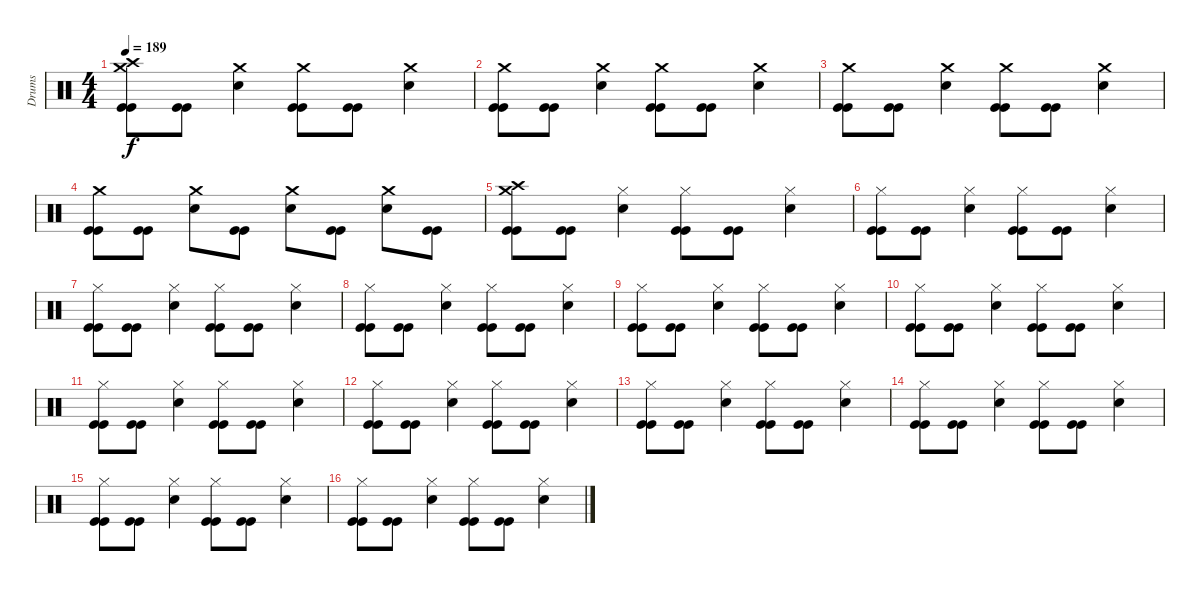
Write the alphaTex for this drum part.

\track ("Drums" "Drums") {instrument percussion}
\staff {score}
\articulation defaults
\ts (4 4)
\tempo 189
\clef neutral
\ks c
("Crash high (hit)" "Crash medium (hit)" "Kick (hit)" "Kick (hit)").8{dy f} ("Kick (hit)" "Kick (hit)").8 ("Crash medium (hit)" "Electric Snare (hit)").4 ("Crash medium (hit)" "Kick (hit)" "Kick (hit)").8 ("Kick (hit)" "Kick (hit)").8 ("Crash medium (hit)" "Electric Snare (hit)").4 |
("Crash medium (hit)" "Kick (hit)" "Kick (hit)").8 ("Kick (hit)" "Kick (hit)").8 ("Crash medium (hit)" "Electric Snare (hit)").4 ("Crash medium (hit)" "Kick (hit)" "Kick (hit)").8 ("Kick (hit)" "Kick (hit)").8 ("Crash medium (hit)" "Electric Snare (hit)").4 |
("Crash medium (hit)" "Kick (hit)" "Kick (hit)").8 ("Kick (hit)" "Kick (hit)").8 ("Crash medium (hit)" "Electric Snare (hit)").4 ("Crash medium (hit)" "Kick (hit)" "Kick (hit)").8 ("Kick (hit)" "Kick (hit)").8 ("Crash medium (hit)" "Electric Snare (hit)").4 |
("Crash medium (hit)" "Kick (hit)" "Kick (hit)").8 ("Kick (hit)" "Kick (hit)").8 ("Crash medium (hit)" "Electric Snare (hit)").8 ("Kick (hit)" "Kick (hit)").8 ("Crash medium (hit)" "Electric Snare (hit)").8 ("Kick (hit)" "Kick (hit)").8 ("Crash medium (hit)" "Electric Snare (hit)").8 ("Kick (hit)" "Kick (hit)").8 |
("Crash high (hit)" "Crash medium (hit)" "Kick (hit)" "Kick (hit)").8 ("Kick (hit)" "Kick (hit)").8 ("Hi-Hat (closed)" "Electric Snare (hit)").4 ("Hi-Hat (closed)" "Kick (hit)" "Kick (hit)").8 ("Kick (hit)" "Kick (hit)").8 ("Hi-Hat (closed)" "Electric Snare (hit)").4 |
("Hi-Hat (closed)" "Kick (hit)" "Kick (hit)").8 ("Kick (hit)" "Kick (hit)").8 ("Hi-Hat (closed)" "Electric Snare (hit)").4 ("Hi-Hat (closed)" "Kick (hit)" "Kick (hit)").8 ("Kick (hit)" "Kick (hit)").8 ("Hi-Hat (closed)" "Electric Snare (hit)").4 |
("Hi-Hat (closed)" "Kick (hit)" "Kick (hit)").8 ("Kick (hit)" "Kick (hit)").8 ("Hi-Hat (closed)" "Electric Snare (hit)").4 ("Hi-Hat (closed)" "Kick (hit)" "Kick (hit)").8 ("Kick (hit)" "Kick (hit)").8 ("Hi-Hat (closed)" "Electric Snare (hit)").4 |
("Hi-Hat (closed)" "Kick (hit)" "Kick (hit)").8 ("Kick (hit)" "Kick (hit)").8 ("Hi-Hat (closed)" "Electric Snare (hit)").4 ("Hi-Hat (closed)" "Kick (hit)" "Kick (hit)").8 ("Kick (hit)" "Kick (hit)").8 ("Hi-Hat (closed)" "Electric Snare (hit)").4 |
("Hi-Hat (closed)" "Kick (hit)" "Kick (hit)").8 ("Kick (hit)" "Kick (hit)").8 ("Hi-Hat (closed)" "Electric Snare (hit)").4 ("Hi-Hat (closed)" "Kick (hit)" "Kick (hit)").8 ("Kick (hit)" "Kick (hit)").8 ("Hi-Hat (closed)" "Electric Snare (hit)").4 |
("Hi-Hat (closed)" "Kick (hit)" "Kick (hit)").8 ("Kick (hit)" "Kick (hit)").8 ("Hi-Hat (closed)" "Electric Snare (hit)").4 ("Hi-Hat (closed)" "Kick (hit)" "Kick (hit)").8 ("Kick (hit)" "Kick (hit)").8 ("Hi-Hat (closed)" "Electric Snare (hit)").4 |
("Hi-Hat (closed)" "Kick (hit)" "Kick (hit)").8 ("Kick (hit)" "Kick (hit)").8 ("Hi-Hat (closed)" "Electric Snare (hit)").4 ("Hi-Hat (closed)" "Kick (hit)" "Kick (hit)").8 ("Kick (hit)" "Kick (hit)").8 ("Hi-Hat (closed)" "Electric Snare (hit)").4 |
("Hi-Hat (closed)" "Kick (hit)" "Kick (hit)").8 ("Kick (hit)" "Kick (hit)").8 ("Hi-Hat (closed)" "Electric Snare (hit)").4 ("Hi-Hat (closed)" "Kick (hit)" "Kick (hit)").8 ("Kick (hit)" "Kick (hit)").8 ("Hi-Hat (closed)" "Electric Snare (hit)").4 |
("Hi-Hat (closed)" "Kick (hit)" "Kick (hit)").8 ("Kick (hit)" "Kick (hit)").8 ("Hi-Hat (closed)" "Electric Snare (hit)").4 ("Hi-Hat (closed)" "Kick (hit)" "Kick (hit)").8 ("Kick (hit)" "Kick (hit)").8 ("Hi-Hat (closed)" "Electric Snare (hit)").4 |
("Hi-Hat (closed)" "Kick (hit)" "Kick (hit)").8 ("Kick (hit)" "Kick (hit)").8 ("Hi-Hat (closed)" "Electric Snare (hit)").4 ("Hi-Hat (closed)" "Kick (hit)" "Kick (hit)").8 ("Kick (hit)" "Kick (hit)").8 ("Hi-Hat (closed)" "Electric Snare (hit)").4 |
("Hi-Hat (closed)" "Kick (hit)" "Kick (hit)").8 ("Kick (hit)" "Kick (hit)").8 ("Hi-Hat (closed)" "Electric Snare (hit)").4 ("Hi-Hat (closed)" "Kick (hit)" "Kick (hit)").8 ("Kick (hit)" "Kick (hit)").8 ("Hi-Hat (closed)" "Electric Snare (hit)").4 |
("Hi-Hat (closed)" "Kick (hit)" "Kick (hit)").8 ("Kick (hit)" "Kick (hit)").8 ("Hi-Hat (closed)" "Electric Snare (hit)").4 ("Hi-Hat (closed)" "Kick (hit)" "Kick (hit)").8 ("Kick (hit)" "Kick (hit)").8 ("Hi-Hat (closed)" "Electric Snare (hit)").4
